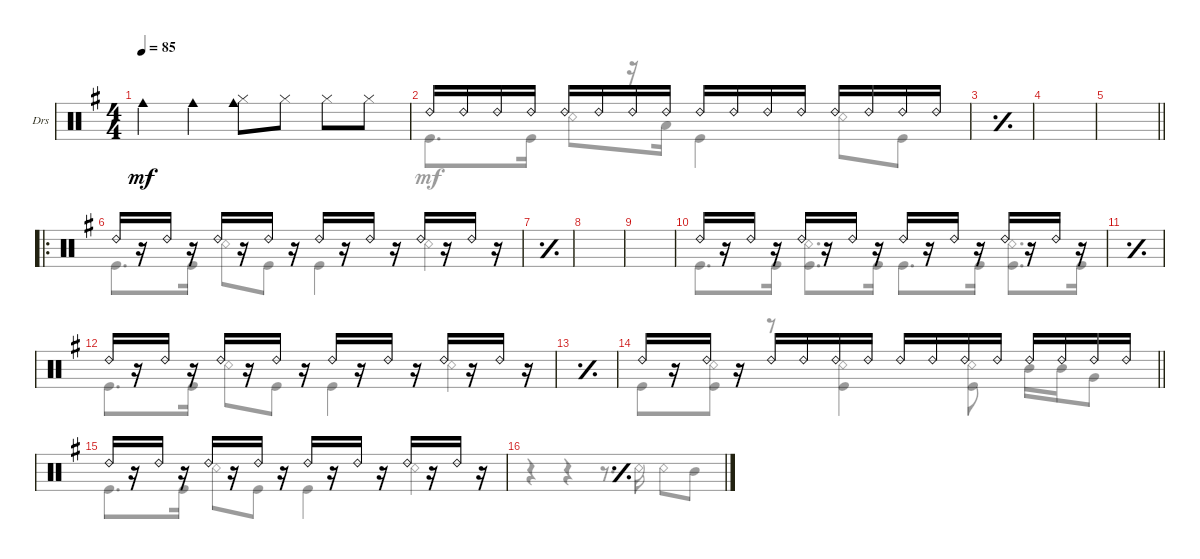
\defaultSystemsLayout 4
\bracketExtendMode nobrackets
\firstSystemTrackNameOrientation horizontal
\otherSystemsTrackNameOrientation horizontal
\track ("Drums" "Drs") {instrument percussion}
\staff {score}
\articulation defaults
\voice
\ts (4 4)
\scale
0.186805
\tempo 85
\accidentals auto
\clef neutral
\ottava regular
\simile none
\ks g "Cowbell medium (hit)".4{dy mf} "Cowbell medium (hit)".4
("Hi-Hat (closed)" "Cowbell medium (hit)").8 "Hi-Hat (closed)".8 "Hi-Hat (closed)".8 "Hi-Hat (closed)".8 |
\scale
0.22345 "Ride (bell) 2".16 "Ride (bell) 2".16 "Ride (bell) 2".16 "Ride (bell) 2".16 "Ride (bell) 2".16 "Ride (bell) 2".16 "Ride (bell) 2".16 "Ride (bell) 2".16 "Ride (bell) 2".16 "Ride (bell) 2".16 "Ride (bell) 2".16 "Ride (bell) 2".16 "Ride (bell) 2".16 "Ride (bell) 2".16 "Ride (bell) 2".16 "Ride (bell) 2".16 |
\scale
0.194569
\simile simple
|
\scale
0.194569 |
\scale
0.200368
\barLineRight lightlight
|
\ro
\scale
0.267262
\simile none "Ride (bell) 2".16
r.16 "Ride (bell) 2".16 r.16 "Ride (bell) 2".16 r.16 "Ride (bell) 2".16 r.16 "Ride (bell) 2".16 r.16 "Ride (bell) 2".16 r.16 "Ride (bell) 2".16 r.16 "Ride (bell) 2".16 r.16 |
\scale
0.235458
\simile simple
|
\scale
0.222937 |
\scale
0.274384 |
\scale
0.214876
\simile none "Ride (bell) 2".16
r.16 "Ride (bell) 2".16 r.16 "Ride (bell) 2".16 r.16 "Ride (bell) 2".16 r.16 "Ride (bell) 2".16 r.16 "Ride (bell) 2".16 r.16 "Ride (bell) 2".16 r.16 "Ride (bell) 2".16 r.16 |
\scale
0.214876
\simile simple
|
\scale
0.214876
\simile none "Ride (bell) 2".16
r.16 "Ride (bell) 2".16 r.16 "Ride (bell) 2".16 r.16 "Ride (bell) 2".16 r.16 "Ride (bell) 2".16 r.16 "Ride (bell) 2".16 r.16 "Ride (bell) 2".16 r.16 "Ride (bell) 2".16 r.16 |
\scale
0.182781
\simile simple
|
\scale
0.173244
\simile none
\barLineRight lightlight "Ride (bell) 2".16
r.16 "Ride (bell) 2".16 r.16 "Ride (bell) 2".16 "Ride (bell) 2".16 "Ride (bell) 2".16 "Ride (bell) 2".16 "Ride (bell) 2".16 "Ride (bell) 2".16 "Ride (bell) 2".16 "Ride (bell) 2".16 "Ride (bell) 2".16 "Ride (bell) 2".16 "Ride (bell) 2".16 "Ride (bell) 2".16 |
\scale
0.249752 "Ride (bell) 2".16 r.16 "Ride (bell) 2".16 r.16 "Ride (bell) 2".16 r.16 "Ride (bell) 2".16 r.16 "Ride (bell) 2".16 r.16 "Ride (bell) 2".16 r.16 "Ride (bell) 2".16 r.16 "Ride (bell) 2".16 r.16 |
\scale
0.246571
\simile simple
\voice
\clef neutral
\ottava regular
\simile none
\ks g
r.4{dy mf} r.4 r.8{d} "Snare (rim shot)".16 "Snare (rim shot)".8 "Mid Tom (hit)".8 |
"Kick (hit)".8{d} "Kick (hit)".16 "Snare (rim shot)".8 r.16 "Low Tom (hit)".16 "Kick (hit)".4 "Snare (rim shot)".8 "Kick (hit)".8 |
\simile simple
|
|
\barLineRight lightlight
|
\simile none "Kick (hit)".8{d} "Kick (hit)".16 "Snare (rim shot)".8 "Kick (hit)".8 "Kick (hit)".4 "Snare (rim shot)".4
|
\simile simple
|
|
|
\simile none "Kick (hit)".8{d} "Kick (hit)".16
("Snare (rim shot)" "Kick (hit)").8{d} "Kick (hit)".16 "Kick (hit)".8{d} "Kick (hit)".16 ("Snare (rim shot)" "Kick (hit)").8{d} "Kick (hit)".16 |
\simile simple
|
\simile none "Kick (hit)".8{d} "Kick (hit)".16 "Snare (rim shot)".8 "Kick (hit)".8 "Kick (hit)".4 "Snare (rim shot)".4
|
\simile simple
|
\simile none
\barLineRight lightlight "Kick (hit)".8
("Kick (hit)" "Snare (rim shot)").8 r.8 ("Kick (hit)" "Snare (rim shot)").4 ("Kick (hit)" "Snare (rim shot)").8 "Mid Tom (hit)".16 "Mid Tom (hit)".16 "Very Low Tom (hit)".8 |
"Kick (hit)".8{d} "Kick (hit)".16 "Snare (rim shot)".8 "Kick (hit)".8 "Kick (hit)".4 "Snare (rim shot)".4 |
\simile simple
